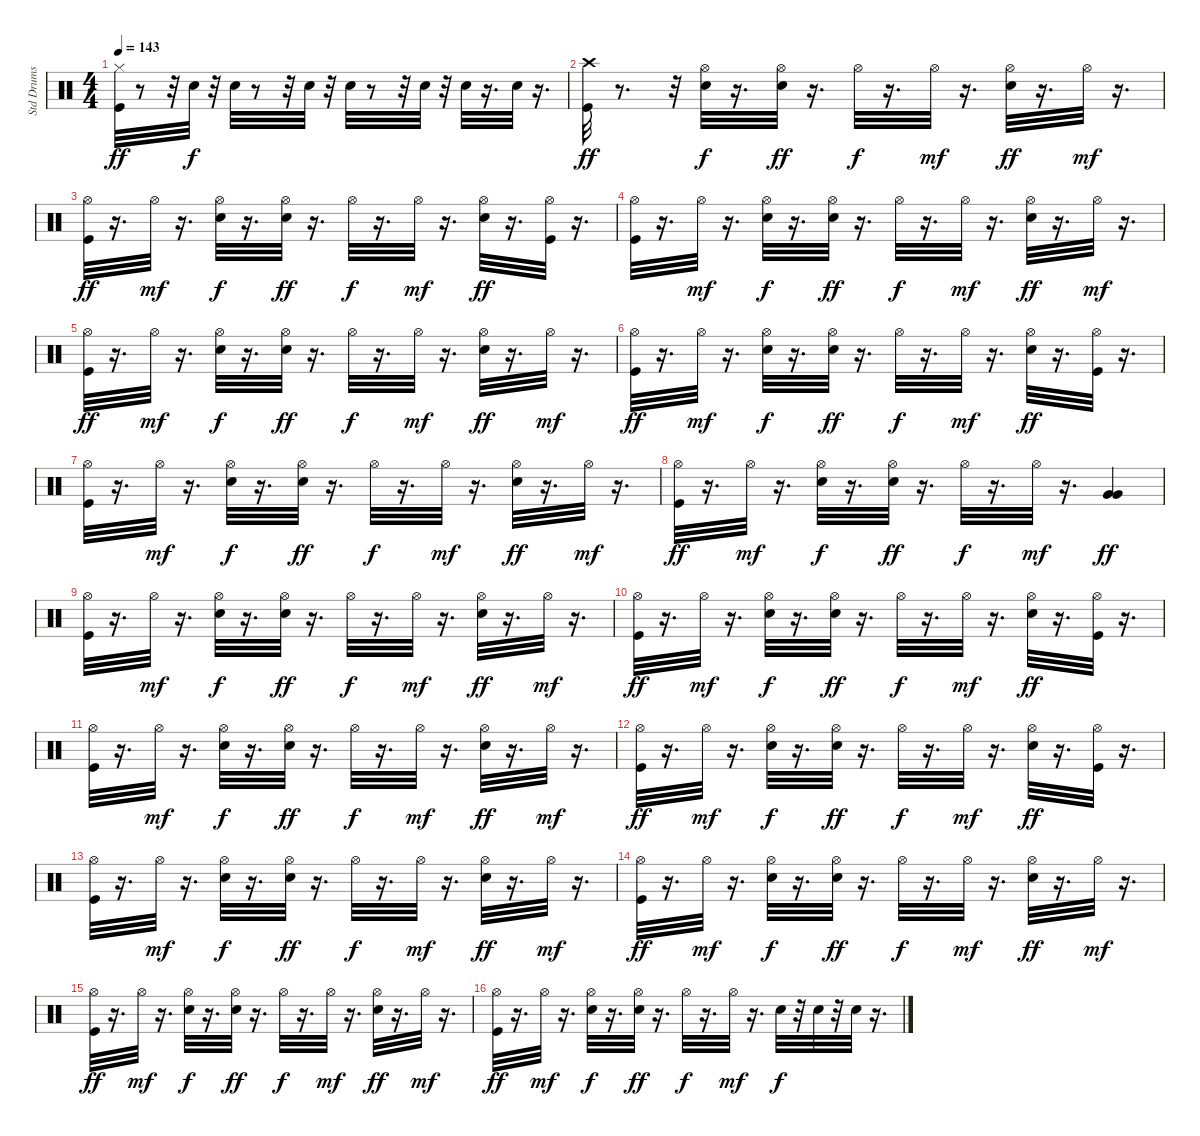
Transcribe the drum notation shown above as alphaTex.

\track ("Std Drums" "Std Drums") {instrument percussion}
\staff {score}
\articulation defaults
\ts (4 4)
\tempo 143
\clef neutral
\ks c
("Hi-Hat (closed)" "Kick (hit)").32{dy ff} r.8 r.32 "Snare (hit) 2".32{dy f} r.32 "Snare (hit) 2".32 r.8 r.32 "Snare (hit) 2".32 r.32 "Snare (hit) 2".32 r.8 r.32 "Snare (hit) 2".32 r.32 "Snare (hit) 2".32 r.16{d} "Snare (hit) 2".32 r.16{d} |
("Kick (hit)" "Crash high (hit)").32{dy ff} r.8{d} r.32 ("Hi-Hat (open)" "Snare (hit) 2").32{dy f} r.16{d} ("Hi-Hat (open)" "Snare (hit) 2").32{dy ff} r.16{d} "Hi-Hat (open)".32{dy f} r.16{d} "Hi-Hat (open)".32{dy mf} r.16{d} ("Hi-Hat (open)" "Snare (hit) 2").32{dy ff} r.16{d} "Hi-Hat (open)".32{dy mf} r.16{d} |
("Hi-Hat (open)" "Kick (hit)").32{dy ff} r.16{d} "Hi-Hat (open)".32{dy mf} r.16{d} ("Hi-Hat (open)" "Snare (hit) 2").32{dy f} r.16{d} ("Hi-Hat (open)" "Snare (hit) 2").32{dy ff} r.16{d} "Hi-Hat (open)".32{dy f} r.16{d} "Hi-Hat (open)".32{dy mf} r.16{d} ("Hi-Hat (open)" "Snare (hit) 2").32{dy ff} r.16{d} ("Hi-Hat (open)" "Kick (hit)").32 r.16{d} |
("Hi-Hat (open)" "Kick (hit)").32 r.16{d} "Hi-Hat (open)".32{dy mf} r.16{d} ("Hi-Hat (open)" "Snare (hit) 2").32{dy f} r.16{d} ("Hi-Hat (open)" "Snare (hit) 2").32{dy ff} r.16{d} "Hi-Hat (open)".32{dy f} r.16{d} "Hi-Hat (open)".32{dy mf} r.16{d} ("Hi-Hat (open)" "Snare (hit) 2").32{dy ff} r.16{d} "Hi-Hat (open)".32{dy mf} r.16{d} |
("Hi-Hat (open)" "Kick (hit)").32{dy ff} r.16{d} "Hi-Hat (open)".32{dy mf} r.16{d} ("Hi-Hat (open)" "Snare (hit) 2").32{dy f} r.16{d} ("Hi-Hat (open)" "Snare (hit) 2").32{dy ff} r.16{d} "Hi-Hat (open)".32{dy f} r.16{d} "Hi-Hat (open)".32{dy mf} r.16{d} ("Hi-Hat (open)" "Snare (hit) 2").32{dy ff} r.16{d} "Hi-Hat (open)".32{dy mf} r.16{d} |
("Hi-Hat (open)" "Kick (hit)").32{dy ff} r.16{d} "Hi-Hat (open)".32{dy mf} r.16{d} ("Hi-Hat (open)" "Snare (hit) 2").32{dy f} r.16{d} ("Hi-Hat (open)" "Snare (hit) 2").32{dy ff} r.16{d} "Hi-Hat (open)".32{dy f} r.16{d} "Hi-Hat (open)".32{dy mf} r.16{d} ("Hi-Hat (open)" "Snare (hit) 2").32{dy ff} r.16{d} ("Hi-Hat (open)" "Kick (hit)").32 r.16{d} |
("Hi-Hat (open)" "Kick (hit)").32 r.16{d} "Hi-Hat (open)".32{dy mf} r.16{d} ("Hi-Hat (open)" "Snare (hit) 2").32{dy f} r.16{d} ("Hi-Hat (open)" "Snare (hit) 2").32{dy ff} r.16{d} "Hi-Hat (open)".32{dy f} r.16{d} "Hi-Hat (open)".32{dy mf} r.16{d} ("Hi-Hat (open)" "Snare (hit) 2").32{dy ff} r.16{d} "Hi-Hat (open)".32{dy mf} r.16{d} |
("Hi-Hat (open)" "Kick (hit)").32{dy ff} r.16{d} "Hi-Hat (open)".32{dy mf} r.16{d} ("Hi-Hat (open)" "Snare (hit) 2").32{dy f} r.16{d} ("Hi-Hat (open)" "Snare (hit) 2").32{dy ff} r.16{d} "Hi-Hat (open)".32{dy f} r.16{d} "Hi-Hat (open)".32{dy mf} r.16{d} ("Very Low Tom (hit)" "Very Low Tom (hit)").4{dy ff} |
("Hi-Hat (open)" "Kick (hit)").32 r.16{d} "Hi-Hat (open)".32{dy mf} r.16{d} ("Hi-Hat (open)" "Snare (hit) 2").32{dy f} r.16{d} ("Hi-Hat (open)" "Snare (hit) 2").32{dy ff} r.16{d} "Hi-Hat (open)".32{dy f} r.16{d} "Hi-Hat (open)".32{dy mf} r.16{d} ("Hi-Hat (open)" "Snare (hit) 2").32{dy ff} r.16{d} "Hi-Hat (open)".32{dy mf} r.16{d} |
("Hi-Hat (open)" "Kick (hit)").32{dy ff} r.16{d} "Hi-Hat (open)".32{dy mf} r.16{d} ("Hi-Hat (open)" "Snare (hit) 2").32{dy f} r.16{d} ("Hi-Hat (open)" "Snare (hit) 2").32{dy ff} r.16{d} "Hi-Hat (open)".32{dy f} r.16{d} "Hi-Hat (open)".32{dy mf} r.16{d} ("Hi-Hat (open)" "Snare (hit) 2").32{dy ff} r.16{d} ("Hi-Hat (open)" "Kick (hit)").32 r.16{d} |
("Hi-Hat (open)" "Kick (hit)").32 r.16{d} "Hi-Hat (open)".32{dy mf} r.16{d} ("Hi-Hat (open)" "Snare (hit) 2").32{dy f} r.16{d} ("Hi-Hat (open)" "Snare (hit) 2").32{dy ff} r.16{d} "Hi-Hat (open)".32{dy f} r.16{d} "Hi-Hat (open)".32{dy mf} r.16{d} ("Hi-Hat (open)" "Snare (hit) 2").32{dy ff} r.16{d} "Hi-Hat (open)".32{dy mf} r.16{d} |
("Hi-Hat (open)" "Kick (hit)").32{dy ff} r.16{d} "Hi-Hat (open)".32{dy mf} r.16{d} ("Hi-Hat (open)" "Snare (hit) 2").32{dy f} r.16{d} ("Hi-Hat (open)" "Snare (hit) 2").32{dy ff} r.16{d} "Hi-Hat (open)".32{dy f} r.16{d} "Hi-Hat (open)".32{dy mf} r.16{d} ("Hi-Hat (open)" "Snare (hit) 2").32{dy ff} r.16{d} ("Hi-Hat (open)" "Kick (hit)").32 r.16{d} |
("Hi-Hat (open)" "Kick (hit)").32 r.16{d} "Hi-Hat (open)".32{dy mf} r.16{d} ("Hi-Hat (open)" "Snare (hit) 2").32{dy f} r.16{d} ("Hi-Hat (open)" "Snare (hit) 2").32{dy ff} r.16{d} "Hi-Hat (open)".32{dy f} r.16{d} "Hi-Hat (open)".32{dy mf} r.16{d} ("Hi-Hat (open)" "Snare (hit) 2").32{dy ff} r.16{d} "Hi-Hat (open)".32{dy mf} r.16{d} |
("Hi-Hat (open)" "Kick (hit)").32{dy ff} r.16{d} "Hi-Hat (open)".32{dy mf} r.16{d} ("Hi-Hat (open)" "Snare (hit) 2").32{dy f} r.16{d} ("Hi-Hat (open)" "Snare (hit) 2").32{dy ff} r.16{d} "Hi-Hat (open)".32{dy f} r.16{d} "Hi-Hat (open)".32{dy mf} r.16{d} ("Hi-Hat (open)" "Snare (hit) 2").32{dy ff} r.16{d} "Hi-Hat (open)".32{dy mf} r.16{d} |
("Hi-Hat (open)" "Kick (hit)").32{dy ff} r.16{d} "Hi-Hat (open)".32{dy mf} r.16{d} ("Hi-Hat (open)" "Snare (hit) 2").32{dy f} r.16{d} ("Hi-Hat (open)" "Snare (hit) 2").32{dy ff} r.16{d} "Hi-Hat (open)".32{dy f} r.16{d} "Hi-Hat (open)".32{dy mf} r.16{d} ("Hi-Hat (open)" "Snare (hit) 2").32{dy ff} r.16{d} "Hi-Hat (open)".32{dy mf} r.16{d} |
("Hi-Hat (open)" "Kick (hit)").32{dy ff} r.16{d} "Hi-Hat (open)".32{dy mf} r.16{d} ("Hi-Hat (open)" "Snare (hit) 2").32{dy f} r.16{d} ("Hi-Hat (open)" "Snare (hit) 2").32{dy ff} r.16{d} "Hi-Hat (open)".32{dy f} r.16{d} "Hi-Hat (open)".32{dy mf} r.16{d} "Snare (hit) 2".32{dy f} r.32 "Snare (hit) 2".32 r.32 "Snare (hit) 2".32 r.16{d}
